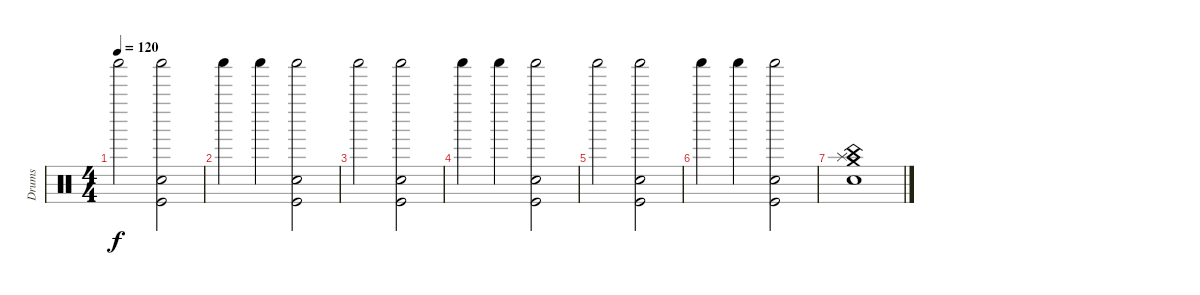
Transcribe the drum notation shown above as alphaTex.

\track ("Drums" "Drums") {instrument percussion}
\staff {score}
\articulation defaults
\ts (4 4)
\tempo 120
\clef neutral
\ks c "Shaker (hit)".2{dy f}
("Shaker (hit)" "Snare (hit) 2" "Kick (hit)").2 |
"Shaker (hit)".4 "Shaker (hit)".4 ("Shaker (hit)" "Snare (hit) 2" "Kick (hit)").2 |
"Shaker (hit)".2 ("Shaker (hit)" "Snare (hit) 2" "Kick (hit)").2 |
"Shaker (hit)".4 "Shaker (hit)".4 ("Shaker (hit)" "Snare (hit) 2" "Kick (hit)").2 |
"Shaker (hit)".2 ("Shaker (hit)" "Snare (hit) 2" "Kick (hit)").2 |
"Shaker (hit)".4 "Shaker (hit)".4 ("Shaker (hit)" "Snare (hit) 2" "Kick (hit)").2 |
("Electric Snare (hit)" "China (hit)" "Splash (hit)" "Crash medium (hit)").1
